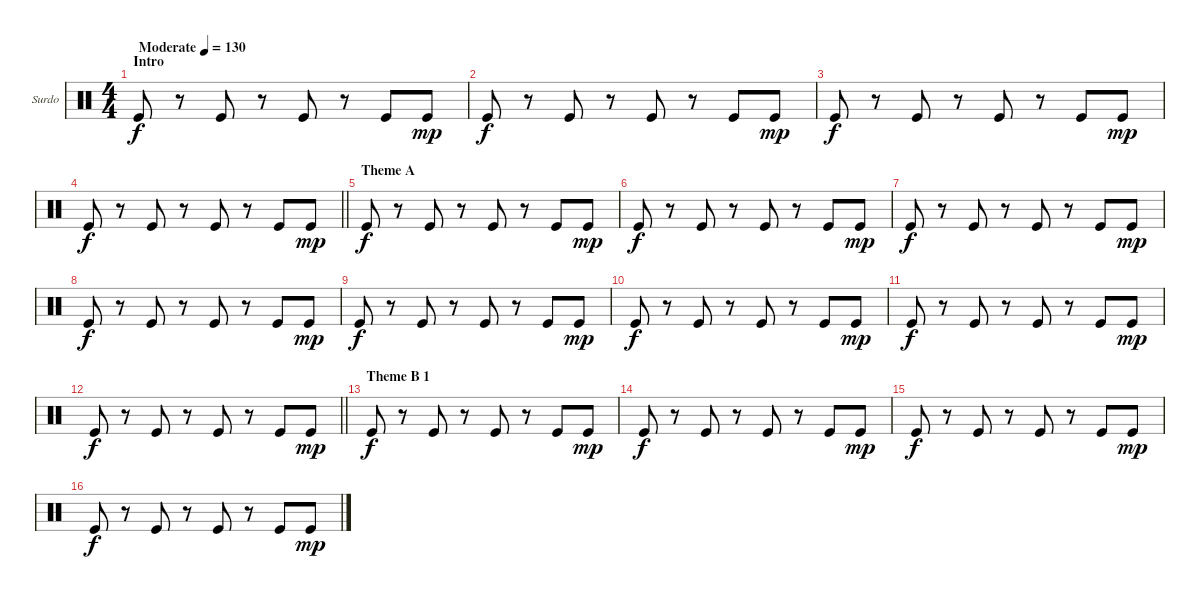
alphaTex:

\bracketExtendMode groupsimilarinstruments
\firstSystemTrackNameOrientation horizontal
\otherSystemsTrackNameOrientation horizontal
\track ("Surdo" "Surdo") {instrument percussion}
\staff {score}
\articulation defaults
\ts (4 4)
\beaming (8 2 2 2 2)
\section ("" "Intro")
\tempo (130 "Moderate")
\clef neutral
\ks c "Kick (hit)".8{dy f}
r.8 "Kick (hit)".8 r.8 "Kick (hit)".8 r.8 "Kick (hit)".8 "Kick (hit)".8{dy mp} |
"Kick (hit)".8{dy f} r.8 "Kick (hit)".8 r.8 "Kick (hit)".8 r.8 "Kick (hit)".8 "Kick (hit)".8{dy mp} |
"Kick (hit)".8{dy f} r.8 "Kick (hit)".8 r.8 "Kick (hit)".8 r.8 "Kick (hit)".8 "Kick (hit)".8{dy mp} |
\barLineRight lightlight "Kick (hit)".8{dy f}
r.8 "Kick (hit)".8 r.8 "Kick (hit)".8 r.8 "Kick (hit)".8 "Kick (hit)".8{dy mp} |
\section ("" "Theme A")
"Kick (hit)".8{dy f} r.8 "Kick (hit)".8 r.8 "Kick (hit)".8 r.8 "Kick (hit)".8 "Kick (hit)".8{dy mp} |
"Kick (hit)".8{dy f} r.8 "Kick (hit)".8 r.8 "Kick (hit)".8 r.8 "Kick (hit)".8 "Kick (hit)".8{dy mp} |
"Kick (hit)".8{dy f} r.8 "Kick (hit)".8 r.8 "Kick (hit)".8 r.8 "Kick (hit)".8 "Kick (hit)".8{dy mp} |
"Kick (hit)".8{dy f} r.8 "Kick (hit)".8 r.8 "Kick (hit)".8 r.8 "Kick (hit)".8 "Kick (hit)".8{dy mp} |
"Kick (hit)".8{dy f} r.8 "Kick (hit)".8 r.8 "Kick (hit)".8 r.8 "Kick (hit)".8 "Kick (hit)".8{dy mp} |
"Kick (hit)".8{dy f} r.8 "Kick (hit)".8 r.8 "Kick (hit)".8 r.8 "Kick (hit)".8 "Kick (hit)".8{dy mp} |
"Kick (hit)".8{dy f} r.8 "Kick (hit)".8 r.8 "Kick (hit)".8 r.8 "Kick (hit)".8 "Kick (hit)".8{dy mp} |
\barLineRight lightlight "Kick (hit)".8{dy f}
r.8 "Kick (hit)".8 r.8 "Kick (hit)".8 r.8 "Kick (hit)".8 "Kick (hit)".8{dy mp} |
\section ("" "Theme B 1")
"Kick (hit)".8{dy f} r.8 "Kick (hit)".8 r.8 "Kick (hit)".8 r.8 "Kick (hit)".8 "Kick (hit)".8{dy mp} |
"Kick (hit)".8{dy f} r.8 "Kick (hit)".8 r.8 "Kick (hit)".8 r.8 "Kick (hit)".8 "Kick (hit)".8{dy mp} |
"Kick (hit)".8{dy f} r.8 "Kick (hit)".8 r.8 "Kick (hit)".8 r.8 "Kick (hit)".8 "Kick (hit)".8{dy mp} |
"Kick (hit)".8{dy f} r.8 "Kick (hit)".8 r.8 "Kick (hit)".8 r.8 "Kick (hit)".8 "Kick (hit)".8{dy mp}
